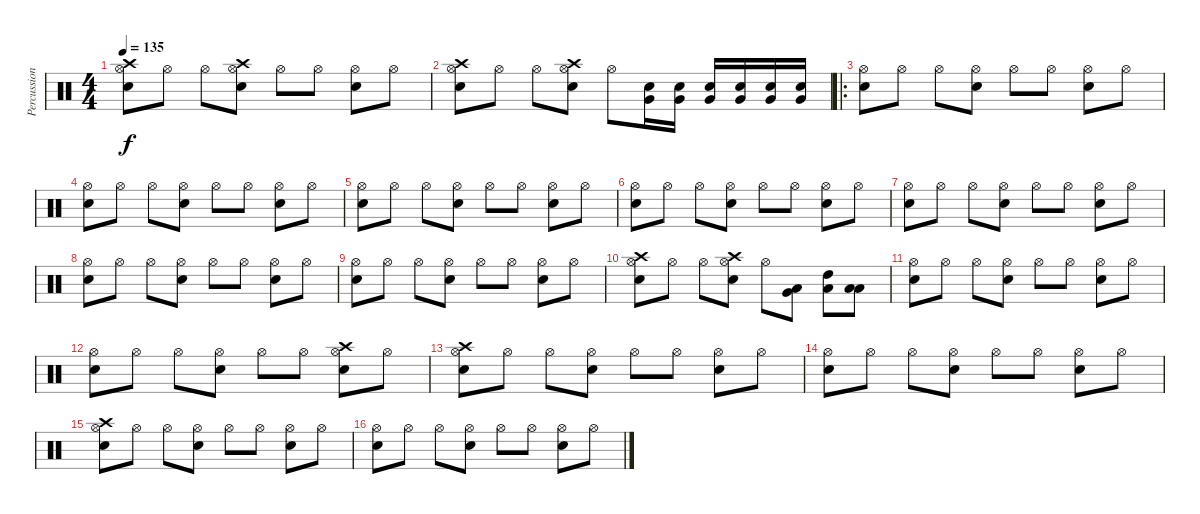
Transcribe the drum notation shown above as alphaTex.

\track ("Percussions" "Percussion") {instrument percussion}
\staff {score}
\articulation defaults
\ts (4 4)
\tempo 135
\clef neutral
\ks c
("Crash high (hit)" "Hi-Hat (open)" "Electric Snare (hit)").8{dy f} "Hi-Hat (open)".8 "Hi-Hat (open)".8 ("Crash high (hit)" "Hi-Hat (open)" "Electric Snare (hit)").8 "Hi-Hat (open)".8 "Hi-Hat (open)".8 ("Hi-Hat (open)" "Electric Snare (hit)").8 "Hi-Hat (open)".8 |
("Crash high (hit)" "Hi-Hat (open)" "Electric Snare (hit)").8 "Hi-Hat (open)".8 "Hi-Hat (open)".8 ("Crash high (hit)" "Hi-Hat (open)" "Electric Snare (hit)").8 "Hi-Hat (open)".8 ("Electric Snare (hit)" "Very Low Tom (hit)").16 ("Electric Snare (hit)" "Very Low Tom (hit)").16 ("Electric Snare (hit)" "Very Low Tom (hit)").16 ("Electric Snare (hit)" "Very Low Tom (hit)").16 ("Electric Snare (hit)" "Very Low Tom (hit)").16 ("Electric Snare (hit)" "Very Low Tom (hit)").16 |
\ro
("Hi-Hat (open)" "Electric Snare (hit)").8 "Hi-Hat (open)".8 "Hi-Hat (open)".8 ("Hi-Hat (open)" "Electric Snare (hit)").8 "Hi-Hat (open)".8 "Hi-Hat (open)".8 ("Hi-Hat (open)" "Electric Snare (hit)").8 "Hi-Hat (open)".8 |
("Hi-Hat (open)" "Electric Snare (hit)").8 "Hi-Hat (open)".8 "Hi-Hat (open)".8 ("Hi-Hat (open)" "Electric Snare (hit)").8 "Hi-Hat (open)".8 "Hi-Hat (open)".8 ("Hi-Hat (open)" "Electric Snare (hit)").8 "Hi-Hat (open)".8 |
("Hi-Hat (open)" "Electric Snare (hit)").8 "Hi-Hat (open)".8 "Hi-Hat (open)".8 ("Hi-Hat (open)" "Electric Snare (hit)").8 "Hi-Hat (open)".8 "Hi-Hat (open)".8 ("Hi-Hat (open)" "Electric Snare (hit)").8 "Hi-Hat (open)".8 |
("Hi-Hat (open)" "Electric Snare (hit)").8 "Hi-Hat (open)".8 "Hi-Hat (open)".8 ("Hi-Hat (open)" "Electric Snare (hit)").8 "Hi-Hat (open)".8 "Hi-Hat (open)".8 ("Hi-Hat (open)" "Electric Snare (hit)").8 "Hi-Hat (open)".8 |
("Hi-Hat (open)" "Electric Snare (hit)").8 "Hi-Hat (open)".8 "Hi-Hat (open)".8 ("Hi-Hat (open)" "Electric Snare (hit)").8 "Hi-Hat (open)".8 "Hi-Hat (open)".8 ("Hi-Hat (open)" "Electric Snare (hit)").8 "Hi-Hat (open)".8 |
("Hi-Hat (open)" "Electric Snare (hit)").8 "Hi-Hat (open)".8 "Hi-Hat (open)".8 ("Hi-Hat (open)" "Electric Snare (hit)").8 "Hi-Hat (open)".8 "Hi-Hat (open)".8 ("Hi-Hat (open)" "Electric Snare (hit)").8 "Hi-Hat (open)".8 |
("Hi-Hat (open)" "Electric Snare (hit)").8 "Hi-Hat (open)".8 "Hi-Hat (open)".8 ("Hi-Hat (open)" "Electric Snare (hit)").8 "Hi-Hat (open)".8 "Hi-Hat (open)".8 ("Hi-Hat (open)" "Electric Snare (hit)").8 "Hi-Hat (open)".8 |
("Crash high (hit)" "Hi-Hat (open)" "Electric Snare (hit)").8 "Hi-Hat (open)".8 "Hi-Hat (open)".8 ("Crash high (hit)" "Hi-Hat (open)" "Electric Snare (hit)").8 "Hi-Hat (open)".8 ("Low Floor Tom (hit)" "Very Low Tom (hit)").8 ("Low Floor Tom (hit)" "High Tom (hit)").8 ("Low Floor Tom (hit)" "Low Tom (hit)").8 |
("Hi-Hat (open)" "Electric Snare (hit)").8 "Hi-Hat (open)".8 "Hi-Hat (open)".8 ("Hi-Hat (open)" "Electric Snare (hit)").8 "Hi-Hat (open)".8 "Hi-Hat (open)".8 ("Hi-Hat (open)" "Electric Snare (hit)").8 "Hi-Hat (open)".8 |
("Hi-Hat (open)" "Electric Snare (hit)").8 "Hi-Hat (open)".8 "Hi-Hat (open)".8 ("Hi-Hat (open)" "Electric Snare (hit)").8 "Hi-Hat (open)".8 "Hi-Hat (open)".8 ("Crash high (hit)" "Hi-Hat (open)" "Electric Snare (hit)").8 "Hi-Hat (open)".8 |
("Crash high (hit)" "Hi-Hat (open)" "Electric Snare (hit)").8 "Hi-Hat (open)".8 "Hi-Hat (open)".8 ("Hi-Hat (open)" "Electric Snare (hit)").8 "Hi-Hat (open)".8 "Hi-Hat (open)".8 ("Hi-Hat (open)" "Electric Snare (hit)").8 "Hi-Hat (open)".8 |
("Hi-Hat (open)" "Electric Snare (hit)").8 "Hi-Hat (open)".8 "Hi-Hat (open)".8 ("Hi-Hat (open)" "Electric Snare (hit)").8 "Hi-Hat (open)".8 "Hi-Hat (open)".8 ("Hi-Hat (open)" "Electric Snare (hit)").8 "Hi-Hat (open)".8 |
("Crash high (hit)" "Hi-Hat (open)" "Electric Snare (hit)").8 "Hi-Hat (open)".8 "Hi-Hat (open)".8 ("Hi-Hat (open)" "Electric Snare (hit)").8 "Hi-Hat (open)".8 "Hi-Hat (open)".8 ("Hi-Hat (open)" "Electric Snare (hit)").8 "Hi-Hat (open)".8 |
("Hi-Hat (open)" "Electric Snare (hit)").8 "Hi-Hat (open)".8 "Hi-Hat (open)".8 ("Hi-Hat (open)" "Electric Snare (hit)").8 "Hi-Hat (open)".8 "Hi-Hat (open)".8 ("Hi-Hat (open)" "Electric Snare (hit)").8 "Hi-Hat (open)".8
